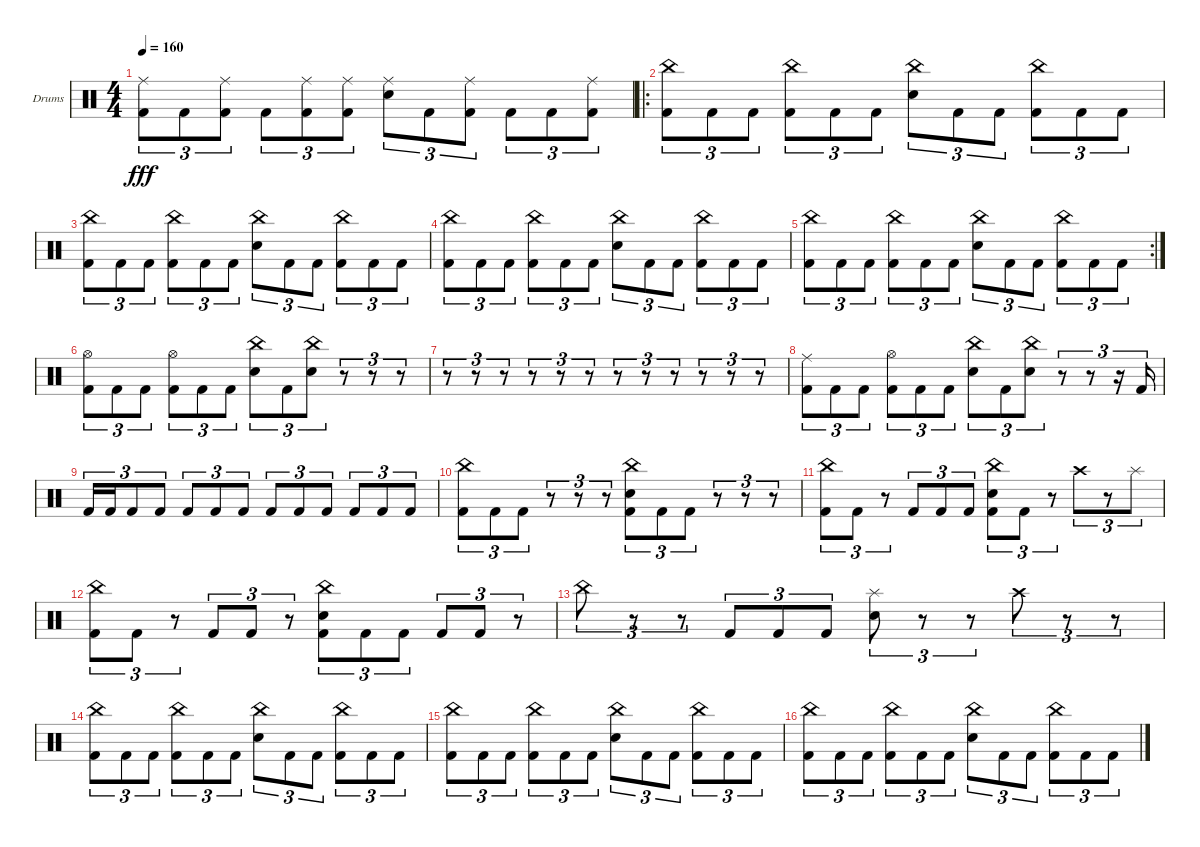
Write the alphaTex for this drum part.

\bracketExtendMode groupsimilarinstruments
\firstSystemTrackNameOrientation horizontal
\otherSystemsTrackNameOrientation horizontal
\track ("Gigante" "Drums") {instrument percussion}
\staff {score}
\articulation defaults
\ts (4 4)
\tempo 160
\clef neutral
\ks c
("Ride (middle)" "Kick (hit) 2").8{tu (3 2) dy fff} "Kick (hit) 2".8{tu (3 2)} ("Ride (middle)" "Kick (hit) 2").8{tu (3 2)} "Kick (hit) 2".8{tu (3 2)} ("Ride (middle)" "Kick (hit) 2").8{tu (3 2)} ("Ride (middle)" "Kick (hit) 2").8{tu (3 2)} ("Ride (middle)" "Snare (hit) 2").8{tu (3 2)} "Kick (hit) 2".8{tu (3 2)} ("Ride (middle)" "Kick (hit) 2").8{tu (3 2)} "Kick (hit) 2".8{tu (3 2)} "Kick (hit) 2".8{tu (3 2)} ("Ride (middle)" "Kick (hit) 2").8{tu (3 2)} |
\ro
("China (hit)" "Kick (hit) 2").8{tu (3 2)} "Kick (hit) 2".8{tu (3 2)} "Kick (hit) 2".8{tu (3 2)} ("China (hit)" "Kick (hit) 2").8{tu (3 2)} "Kick (hit) 2".8{tu (3 2)} "Kick (hit) 2".8{tu (3 2)} ("China (hit)" "Snare (hit) 2").8{tu (3 2)} "Kick (hit) 2".8{tu (3 2)} "Kick (hit) 2".8{tu (3 2)} ("China (hit)" "Kick (hit) 2").8{tu (3 2)} "Kick (hit) 2".8{tu (3 2)} "Kick (hit) 2".8{tu (3 2)} |
("China (hit)" "Kick (hit) 2").8{tu (3 2)} "Kick (hit) 2".8{tu (3 2)} "Kick (hit) 2".8{tu (3 2)} ("China (hit)" "Kick (hit) 2").8{tu (3 2)} "Kick (hit) 2".8{tu (3 2)} "Kick (hit) 2".8{tu (3 2)} ("China (hit)" "Snare (hit) 2").8{tu (3 2)} "Kick (hit) 2".8{tu (3 2)} "Kick (hit) 2".8{tu (3 2)} ("China (hit)" "Kick (hit) 2").8{tu (3 2)} "Kick (hit) 2".8{tu (3 2)} "Kick (hit) 2".8{tu (3 2)} |
("China (hit)" "Kick (hit) 2").8{tu (3 2)} "Kick (hit) 2".8{tu (3 2)} "Kick (hit) 2".8{tu (3 2)} ("China (hit)" "Kick (hit) 2").8{tu (3 2)} "Kick (hit) 2".8{tu (3 2)} "Kick (hit) 2".8{tu (3 2)} ("China (hit)" "Snare (hit) 2").8{tu (3 2)} "Kick (hit) 2".8{tu (3 2)} "Kick (hit) 2".8{tu (3 2)} ("China (hit)" "Kick (hit) 2").8{tu (3 2)} "Kick (hit) 2".8{tu (3 2)} "Kick (hit) 2".8{tu (3 2)} |
\rc 2
("China (hit)" "Kick (hit) 2").8{tu (3 2)} "Kick (hit) 2".8{tu (3 2)} "Kick (hit) 2".8{tu (3 2)} ("China (hit)" "Kick (hit) 2").8{tu (3 2)} "Kick (hit) 2".8{tu (3 2)} "Kick (hit) 2".8{tu (3 2)} ("China (hit)" "Snare (hit) 2").8{tu (3 2)} "Kick (hit) 2".8{tu (3 2)} "Kick (hit) 2".8{tu (3 2)} ("China (hit)" "Kick (hit) 2").8{tu (3 2)} "Kick (hit) 2".8{tu (3 2)} "Kick (hit) 2".8{tu (3 2)} |
("Hi-Hat (open)" "Kick (hit) 2").8{tu (3 2)} "Kick (hit) 2".8{tu (3 2)} "Kick (hit) 2".8{tu (3 2)} ("Hi-Hat (open)" "Kick (hit) 2").8{tu (3 2)} "Kick (hit) 2".8{tu (3 2)} "Kick (hit) 2".8{tu (3 2)} ("China (hit)" "Snare (hit) 2").8{tu (3 2)} "Kick (hit) 2".8{tu (3 2)} ("China (hit)" "Snare (hit) 2").8{tu (3 2)} r.8{tu (3 2)} r.8{tu (3 2)} r.8{tu (3 2)} |
r.8{tu (3 2)} r.8{tu (3 2)} r.8{tu (3 2)} r.8{tu (3 2)} r.8{tu (3 2)} r.8{tu (3 2)} r.8{tu (3 2)} r.8{tu (3 2)} r.8{tu (3 2)} r.8{tu (3 2)} r.8{tu (3 2)} r.8{tu (3 2)} |
("Ride (middle)" "Kick (hit) 2").8{tu (3 2)} "Kick (hit) 2".8{tu (3 2)} "Kick (hit) 2".8{tu (3 2)} ("Hi-Hat (open)" "Kick (hit) 2").8{tu (3 2)} "Kick (hit) 2".8{tu (3 2)} "Kick (hit) 2".8{tu (3 2)} ("China (hit)" "Snare (hit) 2").8{tu (3 2)} "Kick (hit) 2".8{tu (3 2)} ("China (hit)" "Snare (hit) 2").8{tu (3 2)} r.8{tu (3 2)} r.8{tu (3 2)} r.16{tu (3 2)} "Kick (hit) 2".16{tu (3 2)} |
"Kick (hit) 2".16{tu (3 2)} "Kick (hit) 2".16{tu (3 2)} "Kick (hit) 2".8{tu (3 2)} "Kick (hit) 2".8{tu (3 2)} "Kick (hit) 2".8{tu (3 2)} "Kick (hit) 2".8{tu (3 2)} "Kick (hit) 2".8{tu (3 2)} "Kick (hit) 2".8{tu (3 2)} "Kick (hit) 2".8{tu (3 2)} "Kick (hit) 2".8{tu (3 2)} "Kick (hit) 2".8{tu (3 2)} "Kick (hit) 2".8{tu (3 2)} "Kick (hit) 2".8{tu (3 2)} |
("China (hit)" "Kick (hit) 2").8{tu (3 2)} "Kick (hit) 2".8{tu (3 2)} "Kick (hit) 2".8{tu (3 2)} r.8{tu (3 2)} r.8{tu (3 2)} r.8{tu (3 2)} ("China (hit)" "Snare (hit) 2" "Kick (hit) 2").8{tu (3 2)} "Kick (hit) 2".8{tu (3 2)} "Kick (hit) 2".8{tu (3 2)} r.8{tu (3 2)} r.8{tu (3 2)} r.8{tu (3 2)} |
("China (hit)" "Kick (hit) 2").8{tu (3 2)} "Kick (hit) 2".8{tu (3 2)} r.8{tu (3 2)} "Kick (hit) 2".8{tu (3 2)} "Kick (hit) 2".8{tu (3 2)} "Kick (hit) 2".8{tu (3 2)} ("China (hit)" "Snare (hit) 2" "Kick (hit) 2").8{tu (3 2)} "Kick (hit) 2".8{tu (3 2)} r.8{tu (3 2)} "Crash high (hit)".8{tu (3 2)} r.8{tu (3 2)} "Splash (hit)".8{tu (3 2)} |
("China (hit)" "Kick (hit) 2").8{tu (3 2)} "Kick (hit) 2".8{tu (3 2)} r.8{tu (3 2)} "Kick (hit) 2".8{tu (3 2)} "Kick (hit) 2".8{tu (3 2)} r.8{tu (3 2)} ("China (hit)" "Snare (hit) 2" "Kick (hit) 2").8{tu (3 2)} "Kick (hit) 2".8{tu (3 2)} "Kick (hit) 2".8{tu (3 2)} "Kick (hit) 2".8{tu (3 2)} "Kick (hit) 2".8{tu (3 2)} r.8{tu (3 2)} |
"China (hit)".8{tu (3 2)} r.8{tu (3 2)} r.8{tu (3 2)} "Kick (hit) 2".8{tu (3 2)} "Kick (hit) 2".8{tu (3 2)} "Kick (hit) 2".8{tu (3 2)} ("Splash (hit)" "Snare (hit) 2").8{tu (3 2)} r.8{tu (3 2)} r.8{tu (3 2)} "Crash high (hit)".8{tu (3 2)} r.8{tu (3 2)} r.8{tu (3 2)} |
("China (hit)" "Kick (hit) 2").8{tu (3 2)} "Kick (hit) 2".8{tu (3 2)} "Kick (hit) 2".8{tu (3 2)} ("China (hit)" "Kick (hit) 2").8{tu (3 2)} "Kick (hit) 2".8{tu (3 2)} "Kick (hit) 2".8{tu (3 2)} ("China (hit)" "Snare (hit) 2").8{tu (3 2)} "Kick (hit) 2".8{tu (3 2)} "Kick (hit) 2".8{tu (3 2)} ("China (hit)" "Kick (hit) 2").8{tu (3 2)} "Kick (hit) 2".8{tu (3 2)} "Kick (hit) 2".8{tu (3 2)} |
("China (hit)" "Kick (hit) 2").8{tu (3 2)} "Kick (hit) 2".8{tu (3 2)} "Kick (hit) 2".8{tu (3 2)} ("China (hit)" "Kick (hit) 2").8{tu (3 2)} "Kick (hit) 2".8{tu (3 2)} "Kick (hit) 2".8{tu (3 2)} ("China (hit)" "Snare (hit) 2").8{tu (3 2)} "Kick (hit) 2".8{tu (3 2)} "Kick (hit) 2".8{tu (3 2)} ("China (hit)" "Kick (hit) 2").8{tu (3 2)} "Kick (hit) 2".8{tu (3 2)} "Kick (hit) 2".8{tu (3 2)} |
("China (hit)" "Kick (hit) 2").8{tu (3 2)} "Kick (hit) 2".8{tu (3 2)} "Kick (hit) 2".8{tu (3 2)} ("China (hit)" "Kick (hit) 2").8{tu (3 2)} "Kick (hit) 2".8{tu (3 2)} "Kick (hit) 2".8{tu (3 2)} ("China (hit)" "Snare (hit) 2").8{tu (3 2)} "Kick (hit) 2".8{tu (3 2)} "Kick (hit) 2".8{tu (3 2)} ("China (hit)" "Kick (hit) 2").8{tu (3 2)} "Kick (hit) 2".8{tu (3 2)} "Kick (hit) 2".8{tu (3 2)}
